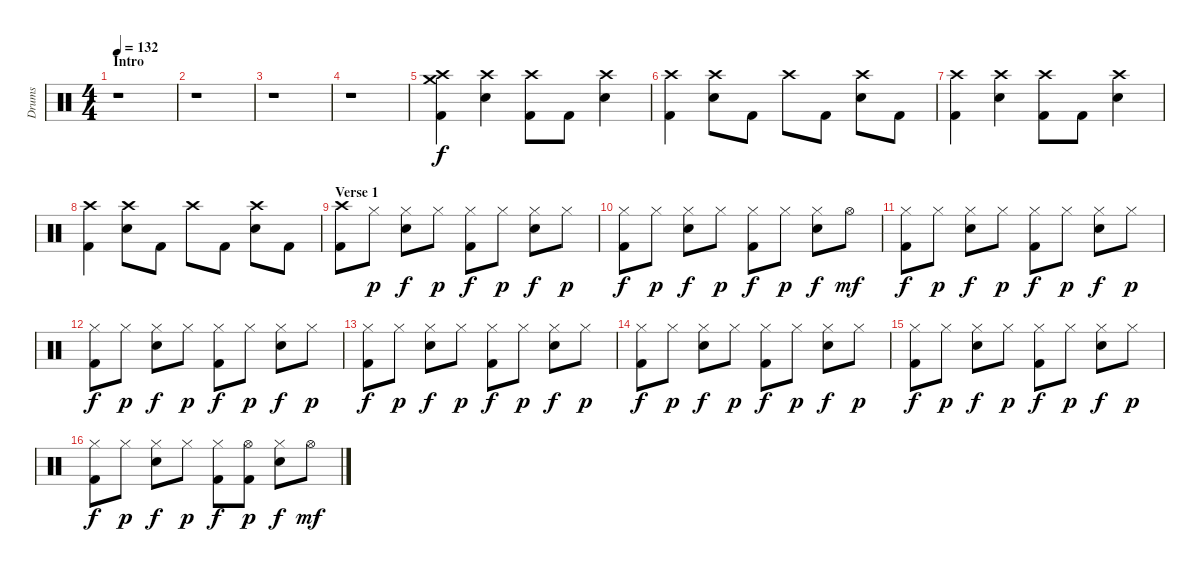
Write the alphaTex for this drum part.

\track ("Drums" "Drums") {instrument percussion}
\staff {score}
\articulation defaults
\ts (4 4)
\section ("" "Intro")
\tempo 132
\clef neutral
\ks c
r.1{dy f} |
r.1 |
r.1 |
r.1 |
("Crash medium (hit)" "Crash high (hit)" "Kick (hit) 2").4 ("Crash high (hit)" "Electric Snare (hit)").4 ("Crash high (hit)" "Kick (hit) 2").8 "Kick (hit) 2".8 ("Crash high (hit)" "Electric Snare (hit)").4 |
("Crash high (hit)" "Kick (hit) 2").4 ("Crash high (hit)" "Electric Snare (hit)").8 "Kick (hit) 2".8 "Crash high (hit)".8 "Kick (hit) 2".8 ("Crash high (hit)" "Electric Snare (hit)").8 "Kick (hit) 2".8 |
("Crash high (hit)" "Kick (hit) 2").4 ("Crash high (hit)" "Electric Snare (hit)").4 ("Crash high (hit)" "Kick (hit) 2").8 "Kick (hit) 2".8 ("Crash high (hit)" "Electric Snare (hit)").4 |
("Crash high (hit)" "Kick (hit) 2").4 ("Crash high (hit)" "Electric Snare (hit)").8 "Kick (hit) 2".8 "Crash high (hit)".8 "Kick (hit) 2".8 ("Crash high (hit)" "Electric Snare (hit)").8 "Kick (hit) 2".8 |
\section ("" "Verse 1")
("Crash high (hit)" "Kick (hit) 2").8 "Hi-Hat (closed)".8{dy p} ("Hi-Hat (closed)" "Electric Snare (hit)").8{dy f} "Hi-Hat (closed)".8{dy p} ("Hi-Hat (closed)" "Kick (hit) 2").8{dy f} "Hi-Hat (closed)".8{dy p} ("Hi-Hat (closed)" "Electric Snare (hit)").8{dy f} "Hi-Hat (closed)".8{dy p} |
("Hi-Hat (closed)" "Kick (hit) 2").8{dy f} "Hi-Hat (closed)".8{dy p} ("Hi-Hat (closed)" "Electric Snare (hit)").8{dy f} "Hi-Hat (closed)".8{dy p} ("Hi-Hat (closed)" "Kick (hit) 2").8{dy f} "Hi-Hat (closed)".8{dy p} ("Hi-Hat (closed)" "Electric Snare (hit)").8{dy f} "Hi-Hat (open)".8{dy mf} |
("Hi-Hat (closed)" "Kick (hit) 2").8{dy f} "Hi-Hat (closed)".8{dy p} ("Hi-Hat (closed)" "Electric Snare (hit)").8{dy f} "Hi-Hat (closed)".8{dy p} ("Hi-Hat (closed)" "Kick (hit) 2").8{dy f} "Hi-Hat (closed)".8{dy p} ("Hi-Hat (closed)" "Electric Snare (hit)").8{dy f} "Hi-Hat (closed)".8{dy p} |
("Hi-Hat (closed)" "Kick (hit) 2").8{dy f} "Hi-Hat (closed)".8{dy p} ("Hi-Hat (closed)" "Electric Snare (hit)").8{dy f} "Hi-Hat (closed)".8{dy p} ("Hi-Hat (closed)" "Kick (hit) 2").8{dy f} "Hi-Hat (closed)".8{dy p} ("Hi-Hat (closed)" "Electric Snare (hit)").8{dy f} "Hi-Hat (closed)".8{dy p} |
("Hi-Hat (closed)" "Kick (hit) 2").8{dy f} "Hi-Hat (closed)".8{dy p} ("Hi-Hat (closed)" "Electric Snare (hit)").8{dy f} "Hi-Hat (closed)".8{dy p} ("Hi-Hat (closed)" "Kick (hit) 2").8{dy f} "Hi-Hat (closed)".8{dy p} ("Hi-Hat (closed)" "Electric Snare (hit)").8{dy f} "Hi-Hat (closed)".8{dy p} |
("Hi-Hat (closed)" "Kick (hit) 2").8{dy f} "Hi-Hat (closed)".8{dy p} ("Hi-Hat (closed)" "Electric Snare (hit)").8{dy f} "Hi-Hat (closed)".8{dy p} ("Hi-Hat (closed)" "Kick (hit) 2").8{dy f} "Hi-Hat (closed)".8{dy p} ("Hi-Hat (closed)" "Electric Snare (hit)").8{dy f} "Hi-Hat (closed)".8{dy p} |
("Hi-Hat (closed)" "Kick (hit) 2").8{dy f} "Hi-Hat (closed)".8{dy p} ("Hi-Hat (closed)" "Electric Snare (hit)").8{dy f} "Hi-Hat (closed)".8{dy p} ("Hi-Hat (closed)" "Kick (hit) 2").8{dy f} "Hi-Hat (closed)".8{dy p} ("Hi-Hat (closed)" "Electric Snare (hit)").8{dy f} "Hi-Hat (closed)".8{dy p} |
("Hi-Hat (closed)" "Kick (hit) 2").8{dy f} "Hi-Hat (closed)".8{dy p} ("Hi-Hat (closed)" "Electric Snare (hit)").8{dy f} "Hi-Hat (closed)".8{dy p} ("Hi-Hat (closed)" "Kick (hit) 2").8{dy f} ("Hi-Hat (open)" "Kick (hit) 2").8{dy p} ("Hi-Hat (closed)" "Electric Snare (hit)").8{dy f} "Hi-Hat (open)".8{dy mf}
